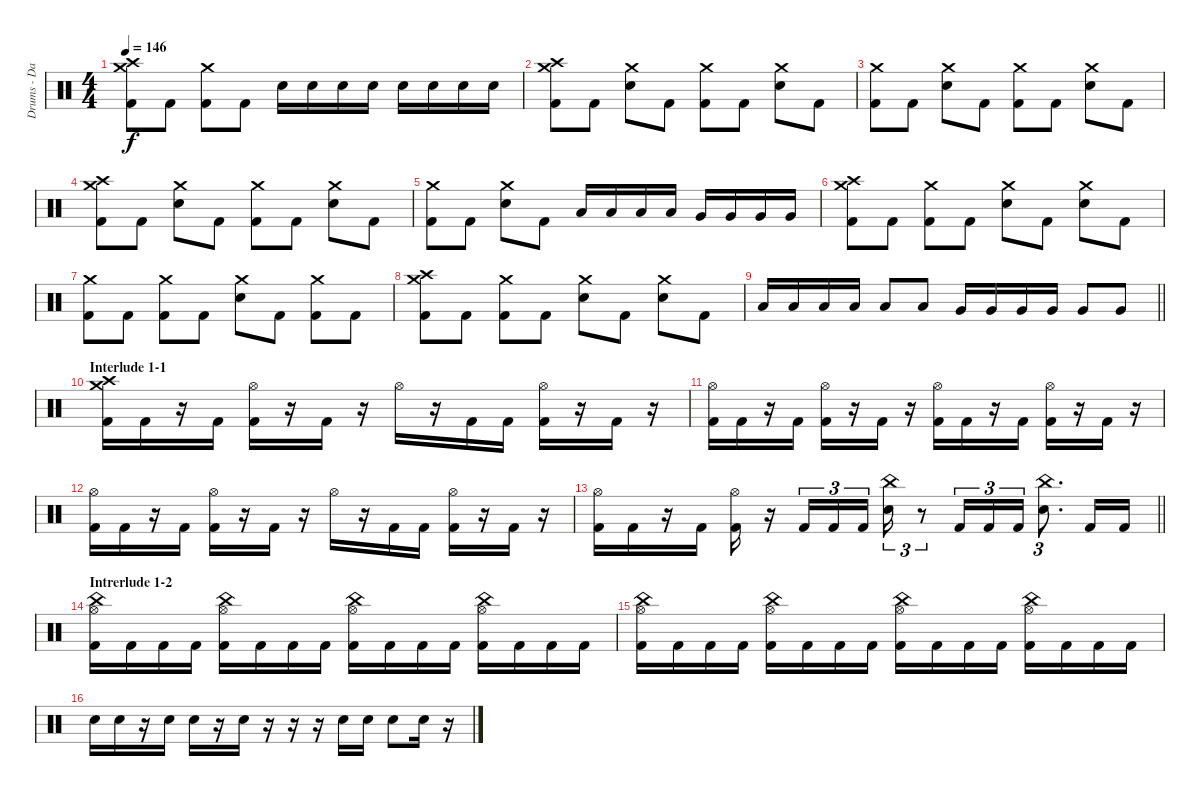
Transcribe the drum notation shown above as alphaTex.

\track ("Drums - DaDa" "Drums - Da") {instrument percussion}
\staff {score}
\articulation defaults
\ts (4 4)
\tempo 146
\clef neutral
\ks c
("Crash medium (hit)" "Crash high (hit)" "Kick (hit) 2").8{dy f} "Kick (hit) 2".8 ("Crash medium (hit)" "Kick (hit) 2").8 "Kick (hit) 2".8 "Electric Snare (hit)".16 "Electric Snare (hit)".16 "Electric Snare (hit)".16 "Electric Snare (hit)".16 "Electric Snare (hit)".16 "Electric Snare (hit)".16 "Electric Snare (hit)".16 "Electric Snare (hit)".16 |
("Crash medium (hit)" "Crash high (hit)" "Kick (hit) 2").8 "Kick (hit) 2".8 ("Crash medium (hit)" "Electric Snare (hit)").8 "Kick (hit) 2".8 ("Crash medium (hit)" "Kick (hit) 2").8 "Kick (hit) 2".8 ("Crash medium (hit)" "Electric Snare (hit)").8 "Kick (hit) 2".8 |
("Crash medium (hit)" "Kick (hit) 2").8 "Kick (hit) 2".8 ("Crash medium (hit)" "Electric Snare (hit)").8 "Kick (hit) 2".8 ("Crash medium (hit)" "Kick (hit) 2").8 "Kick (hit) 2".8 ("Crash medium (hit)" "Electric Snare (hit)").8 "Kick (hit) 2".8 |
("Crash medium (hit)" "Crash high (hit)" "Kick (hit) 2").8 "Kick (hit) 2".8 ("Crash medium (hit)" "Electric Snare (hit)").8 "Kick (hit) 2".8 ("Crash medium (hit)" "Kick (hit) 2").8 "Kick (hit) 2".8 ("Crash medium (hit)" "Electric Snare (hit)").8 "Kick (hit) 2".8 |
("Crash medium (hit)" "Kick (hit) 2").8 "Kick (hit) 2".8 ("Crash medium (hit)" "Electric Snare (hit)").8 "Kick (hit) 2".8 "Low Tom (hit)".16 "Low Tom (hit)".16 "Low Tom (hit)".16 "Low Tom (hit)".16 "Very Low Tom (hit)".16 "Very Low Tom (hit)".16 "Very Low Tom (hit)".16 "Very Low Tom (hit)".16 |
("Crash medium (hit)" "Crash high (hit)" "Kick (hit) 2").8 "Kick (hit) 2".8 ("Crash medium (hit)" "Kick (hit) 2").8 "Kick (hit) 2".8 ("Crash medium (hit)" "Electric Snare (hit)").8 "Kick (hit) 2".8 ("Crash medium (hit)" "Electric Snare (hit)").8 "Kick (hit) 2".8 |
("Crash medium (hit)" "Kick (hit) 2").8 "Kick (hit) 2".8 ("Crash medium (hit)" "Kick (hit) 2").8 "Kick (hit) 2".8 ("Crash medium (hit)" "Electric Snare (hit)").8 "Kick (hit) 2".8 ("Crash medium (hit)" "Kick (hit) 2").8 "Kick (hit) 2".8 |
("Crash medium (hit)" "Crash high (hit)" "Kick (hit) 2").8 "Kick (hit) 2".8 ("Crash medium (hit)" "Kick (hit) 2").8 "Kick (hit) 2".8 ("Crash medium (hit)" "Electric Snare (hit)").8 "Kick (hit) 2".8 ("Crash medium (hit)" "Electric Snare (hit)").8 "Kick (hit) 2".8 |
\barLineRight lightlight "Low Tom (hit)".16 "Low Tom (hit)".16 "Low Tom (hit)".16 "Low Tom (hit)".16 "Low Tom (hit)".8 "Low Tom (hit)".8 "Very Low Tom (hit)".16 "Very Low Tom (hit)".16 "Very Low Tom (hit)".16 "Very Low Tom (hit)".16 "Very Low Tom (hit)".8 "Very Low Tom (hit)".8
|
\section ("" "Interlude 1-1")
("Crash medium (hit)" "Crash high (hit)" "Kick (hit) 2").16 "Kick (hit) 2".16 r.16 "Kick (hit) 2".16 ("Hi-Hat (open)" "Kick (hit) 2").16 r.16 "Kick (hit) 2".16 r.16 "Hi-Hat (open)".16 r.16 "Kick (hit) 2".16 "Kick (hit) 2".16 ("Hi-Hat (open)" "Kick (hit) 2").16 r.16 "Kick (hit) 2".16 r.16 |
("Hi-Hat (open)" "Kick (hit) 2").16 "Kick (hit) 2".16 r.16 "Kick (hit) 2".16 ("Hi-Hat (open)" "Kick (hit) 2").16 r.16 "Kick (hit) 2".16 r.16 ("Hi-Hat (open)" "Kick (hit) 2").16 "Kick (hit) 2".16 r.16 "Kick (hit) 2".16 ("Hi-Hat (open)" "Kick (hit) 2").16 r.16 "Kick (hit) 2".16 r.16 |
("Hi-Hat (open)" "Kick (hit) 2").16 "Kick (hit) 2".16 r.16 "Kick (hit) 2".16 ("Hi-Hat (open)" "Kick (hit) 2").16 r.16 "Kick (hit) 2".16 r.16 "Hi-Hat (open)".16 r.16 "Kick (hit) 2".16 "Kick (hit) 2".16 ("Hi-Hat (open)" "Kick (hit) 2").16 r.16 "Kick (hit) 2".16 r.16 |
\barLineRight lightlight
("Hi-Hat (open)" "Kick (hit) 2").16 "Kick (hit) 2".16 r.16 "Kick (hit) 2".16 ("Hi-Hat (open)" "Kick (hit) 2").16 r.16 "Kick (hit) 2".16{tu (3 2)} "Kick (hit) 2".16{tu (3 2)} "Kick (hit) 2".16{tu (3 2)} ("China (hit)" "Electric Snare (hit)").16{tu (3 2)} r.8{tu (3 2)} "Kick (hit) 2".16{tu (3 2)} "Kick (hit) 2".16{tu (3 2)} "Kick (hit) 2".16{tu (3 2)} ("China (hit)" "Electric Snare (hit)").8{d tu (3 2)} "Kick (hit) 2".16 "Kick (hit) 2".16 |
\section ("" "Intrerlude 1-2")
("China (hit)" "Hi-Hat (open)" "Kick (hit) 2").16 "Kick (hit) 2".16 "Kick (hit) 2".16 "Kick (hit) 2".16 ("China (hit)" "Hi-Hat (open)" "Kick (hit) 2").16 "Kick (hit) 2".16 "Kick (hit) 2".16 "Kick (hit) 2".16 ("China (hit)" "Hi-Hat (open)" "Kick (hit) 2").16 "Kick (hit) 2".16 "Kick (hit) 2".16 "Kick (hit) 2".16 ("China (hit)" "Hi-Hat (open)" "Kick (hit) 2").16 "Kick (hit) 2".16 "Kick (hit) 2".16 "Kick (hit) 2".16 |
("China (hit)" "Hi-Hat (open)" "Kick (hit) 2").16 "Kick (hit) 2".16 "Kick (hit) 2".16 "Kick (hit) 2".16 ("China (hit)" "Hi-Hat (open)" "Kick (hit) 2").16 "Kick (hit) 2".16 "Kick (hit) 2".16 "Kick (hit) 2".16 ("China (hit)" "Hi-Hat (open)" "Kick (hit) 2").16 "Kick (hit) 2".16 "Kick (hit) 2".16 "Kick (hit) 2".16 ("China (hit)" "Hi-Hat (open)" "Kick (hit) 2").16 "Kick (hit) 2".16 "Kick (hit) 2".16 "Kick (hit) 2".16 |
"Electric Snare (hit)".16 "Electric Snare (hit)".16 r.16 "Electric Snare (hit)".16 "Electric Snare (hit)".16 r.16 "Electric Snare (hit)".16 r.16 r.16 r.16 "Electric Snare (hit)".16 "Electric Snare (hit)".16 "Electric Snare (hit)".8 "Electric Snare (hit)".16 r.16
